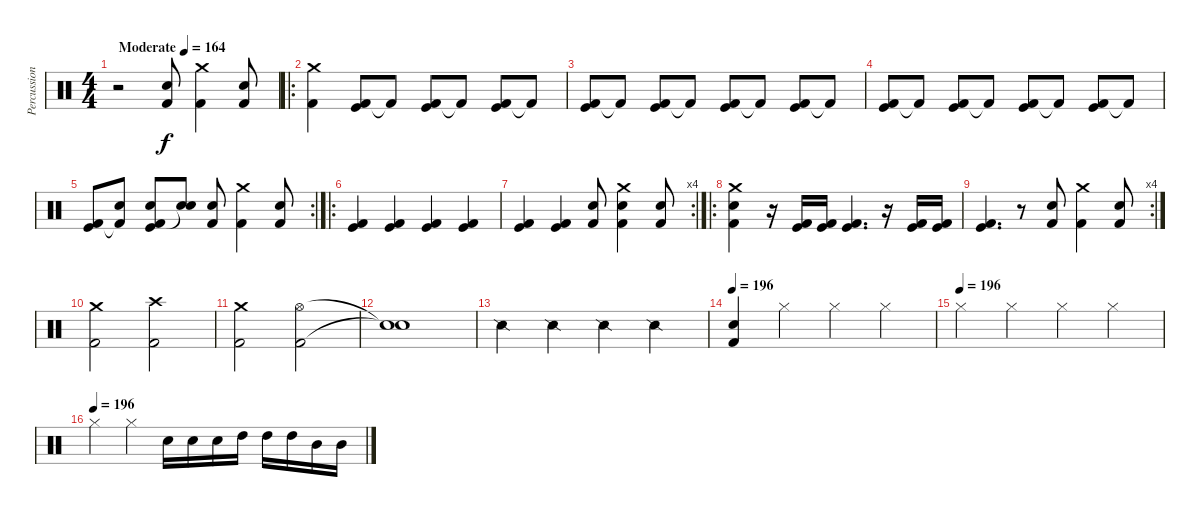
\track ("Percussions" "Percussion") {instrument percussion}
\staff {score}
\articulation defaults
\ts (4 4)
\tempo (164 "Moderate")
\clef neutral
\ks c
r.2{dy f} ("Kick (hit) 2" "Snare (hit) 2").8 ("Kick (hit) 2" "Crash medium (hit)").4 ("Kick (hit) 2" "Snare (hit) 2").8 |
\ro
("Kick (hit) 2" "Crash medium (hit)").4 ("Kick (hit) 2" "Kick (hit)").8 "Kick (hit) 2"{t}.8 ("Kick (hit) 2" "Kick (hit)").8 "Kick (hit) 2"{t}.8 ("Kick (hit) 2" "Kick (hit)").8 "Kick (hit) 2"{t}.8 |
("Kick (hit) 2" "Kick (hit)").8 "Kick (hit) 2"{t}.8 ("Kick (hit) 2" "Kick (hit)").8 "Kick (hit) 2"{t}.8 ("Kick (hit) 2" "Kick (hit)").8 "Kick (hit) 2"{t}.8 ("Kick (hit) 2" "Kick (hit)").8 "Kick (hit) 2"{t}.8 |
("Kick (hit) 2" "Kick (hit)").8 "Kick (hit) 2"{t}.8 ("Kick (hit) 2" "Kick (hit)").8 "Kick (hit) 2"{t}.8 ("Kick (hit) 2" "Kick (hit)").8 "Kick (hit) 2"{t}.8 ("Kick (hit) 2" "Kick (hit)").8 "Kick (hit) 2"{t}.8 |
\rc 2
("Kick (hit) 2" "Kick (hit)").8 ("Kick (hit) 2"{t} "Snare (hit) 2").8 ("Kick (hit) 2" "Snare (hit) 2" "Kick (hit)").8 ("Snare (hit)"{t} "Snare (hit) 2").8 ("Kick (hit) 2" "Snare (hit) 2").8 ("Kick (hit) 2" "Crash medium (hit)").4 ("Kick (hit) 2" "Snare (hit) 2").8 |
\ro
("Kick (hit) 2" "Kick (hit)").4 ("Kick (hit) 2" "Kick (hit)").4 ("Kick (hit) 2" "Kick (hit)").4 ("Kick (hit) 2" "Kick (hit)").4 |
\rc 4
("Kick (hit) 2" "Kick (hit)").4 ("Kick (hit) 2" "Kick (hit)").4 ("Kick (hit) 2" "Snare (hit) 2").8 ("Kick (hit) 2" "Snare (hit) 2" "Crash medium (hit)").4 ("Kick (hit) 2" "Snare (hit) 2").8 |
\ro
("Kick (hit) 2" "Snare (hit) 2" "Crash medium (hit)").4 r.16 ("Kick (hit) 2" "Kick (hit)").16 ("Kick (hit) 2" "Kick (hit)").16 ("Kick (hit) 2" "Kick (hit)").4{d} r.16 ("Kick (hit) 2" "Kick (hit)").16 ("Kick (hit) 2" "Kick (hit)").16 |
\rc 4
("Kick (hit) 2" "Kick (hit)").4{d} r.8 ("Kick (hit) 2" "Snare (hit) 2").8 ("Kick (hit) 2" "Crash medium (hit)").4 ("Kick (hit) 2" "Snare (hit) 2").8 |
("Kick (hit) 2" "Crash medium (hit)").2 ("Kick (hit) 2" "Crash high (hit)").2 |
("Kick (hit) 2" "Crash medium (hit)").2 ("Kick (hit) 2" "Hi-Hat (open)").2 |
("Snare (hit)"{t} "Snare (hit)"{t}).1 |
"Snare (side stick) 2".4 "Snare (side stick) 2".4 "Snare (side stick) 2".4 "Snare (side stick) 2".4 |
\tempo 196
("Kick (hit) 2" "Snare (hit) 2").4 "Hi-Hat (closed)".4 "Hi-Hat (closed)".4 "Hi-Hat (closed)".4 |
\tempo (196)
"Hi-Hat (closed)".4 "Hi-Hat (closed)".4 "Hi-Hat (closed)".4 "Hi-Hat (closed)".4 |
\tempo (196)
"Hi-Hat (closed)".4 "Hi-Hat (closed)".4 "Snare (hit) 2".16 "Snare (hit) 2".16 "Snare (hit) 2".16 "High Tom (hit)".16 "High Tom (hit)".16 "High Tom (hit)".16 "Mid Tom (hit)".16 "Mid Tom (hit)".16
